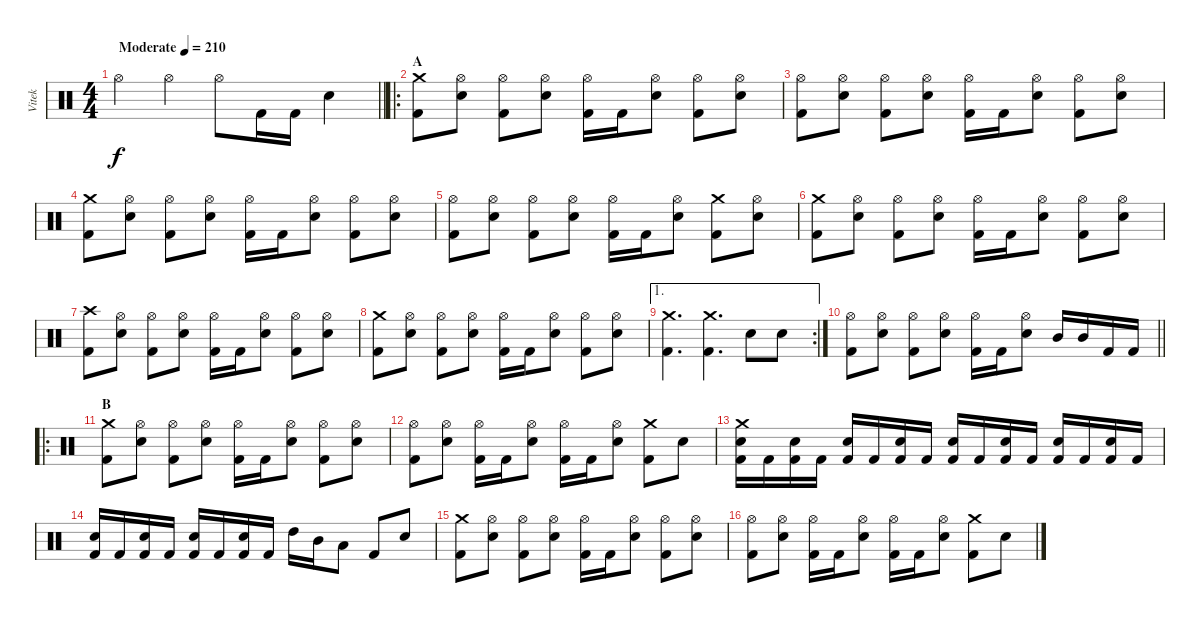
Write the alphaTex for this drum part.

\track ("Vitek" "Vitek") {instrument percussion}
\staff {score}
\articulation defaults
\ts (4 4)
\tempo (210 "Moderate")
\clef neutral
\barLineRight lightlight
\ks c "Hi-Hat (open)".4{dy f} "Hi-Hat (open)".4 "Hi-Hat (open)".8 "Kick (hit) 2".16 "Kick (hit) 2".16 "Electric Snare (hit)".4
|
\ro
\section ("" "A")
("Crash medium (hit)" "Kick (hit) 2").8 ("Hi-Hat (open)" "Electric Snare (hit)").8 ("Hi-Hat (open)" "Kick (hit) 2").8 ("Hi-Hat (open)" "Electric Snare (hit)").8 ("Hi-Hat (open)" "Kick (hit) 2").16 "Kick (hit) 2".16 ("Hi-Hat (open)" "Electric Snare (hit)").8 ("Hi-Hat (open)" "Kick (hit) 2").8 ("Hi-Hat (open)" "Electric Snare (hit)").8 |
("Hi-Hat (open)" "Kick (hit) 2").8 ("Hi-Hat (open)" "Electric Snare (hit)").8 ("Hi-Hat (open)" "Kick (hit) 2").8 ("Hi-Hat (open)" "Electric Snare (hit)").8 ("Hi-Hat (open)" "Kick (hit) 2").16 "Kick (hit) 2".16 ("Hi-Hat (open)" "Electric Snare (hit)").8 ("Hi-Hat (open)" "Kick (hit) 2").8 ("Hi-Hat (open)" "Electric Snare (hit)").8 |
("Crash medium (hit)" "Kick (hit) 2").8 ("Hi-Hat (open)" "Electric Snare (hit)").8 ("Hi-Hat (open)" "Kick (hit) 2").8 ("Hi-Hat (open)" "Electric Snare (hit)").8 ("Hi-Hat (open)" "Kick (hit) 2").16 "Kick (hit) 2".16 ("Hi-Hat (open)" "Electric Snare (hit)").8 ("Hi-Hat (open)" "Kick (hit) 2").8 ("Hi-Hat (open)" "Electric Snare (hit)").8 |
("Hi-Hat (open)" "Kick (hit) 2").8 ("Hi-Hat (open)" "Electric Snare (hit)").8 ("Hi-Hat (open)" "Kick (hit) 2").8 ("Hi-Hat (open)" "Electric Snare (hit)").8 ("Hi-Hat (open)" "Kick (hit) 2").16 "Kick (hit) 2".16 ("Hi-Hat (open)" "Electric Snare (hit)").8 ("Crash medium (hit)" "Kick (hit) 2").8 ("Hi-Hat (open)" "Electric Snare (hit)").8 |
("Crash medium (hit)" "Kick (hit) 2").8 ("Hi-Hat (open)" "Electric Snare (hit)").8 ("Hi-Hat (open)" "Kick (hit) 2").8 ("Hi-Hat (open)" "Electric Snare (hit)").8 ("Hi-Hat (open)" "Kick (hit) 2").16 "Kick (hit) 2".16 ("Hi-Hat (open)" "Electric Snare (hit)").8 ("Hi-Hat (open)" "Kick (hit) 2").8 ("Hi-Hat (open)" "Electric Snare (hit)").8 |
("Crash high (hit)" "Kick (hit) 2").8 ("Hi-Hat (open)" "Electric Snare (hit)").8 ("Hi-Hat (open)" "Kick (hit) 2").8 ("Hi-Hat (open)" "Electric Snare (hit)").8 ("Hi-Hat (open)" "Kick (hit) 2").16 "Kick (hit) 2".16 ("Hi-Hat (open)" "Electric Snare (hit)").8 ("Hi-Hat (open)" "Kick (hit) 2").8 ("Hi-Hat (open)" "Electric Snare (hit)").8 |
("Crash medium (hit)" "Kick (hit) 2").8 ("Hi-Hat (open)" "Electric Snare (hit)").8 ("Hi-Hat (open)" "Kick (hit) 2").8 ("Hi-Hat (open)" "Electric Snare (hit)").8 ("Hi-Hat (open)" "Kick (hit) 2").16 "Kick (hit) 2".16 ("Hi-Hat (open)" "Electric Snare (hit)").8 ("Hi-Hat (open)" "Kick (hit) 2").8 ("Hi-Hat (open)" "Electric Snare (hit)").8 |
\ae 1
\rc 2
("Crash medium (hit)" "Kick (hit) 2").4{d} ("Crash medium (hit)" "Kick (hit) 2").4{d} "Electric Snare (hit)".8 "Electric Snare (hit)".8 |
\barLineRight lightlight
("Hi-Hat (open)" "Kick (hit) 2").8 ("Hi-Hat (open)" "Electric Snare (hit)").8 ("Hi-Hat (open)" "Kick (hit) 2").8 ("Hi-Hat (open)" "Electric Snare (hit)").8 ("Hi-Hat (open)" "Kick (hit) 2").16 "Kick (hit) 2".16 ("Hi-Hat (open)" "Electric Snare (hit)").8 "Mid Tom (hit)".16 "Mid Tom (hit)".16 "Kick (hit) 2".16 "Kick (hit) 2".16 |
\ro
\section ("" "B")
("Crash medium (hit)" "Kick (hit) 2").8 ("Hi-Hat (open)" "Electric Snare (hit)").8 ("Hi-Hat (open)" "Kick (hit) 2").8 ("Hi-Hat (open)" "Electric Snare (hit)").8 ("Hi-Hat (open)" "Kick (hit) 2").16 "Kick (hit) 2".16 ("Hi-Hat (open)" "Electric Snare (hit)").8 ("Hi-Hat (open)" "Kick (hit) 2").8 ("Hi-Hat (open)" "Electric Snare (hit)").8 |
("Hi-Hat (open)" "Kick (hit) 2").8 ("Hi-Hat (open)" "Electric Snare (hit)").8 ("Hi-Hat (open)" "Kick (hit) 2").16 "Kick (hit) 2".16 ("Hi-Hat (open)" "Electric Snare (hit)").8 ("Hi-Hat (open)" "Kick (hit) 2").16 "Kick (hit) 2".16 ("Hi-Hat (open)" "Electric Snare (hit)").8 ("Crash medium (hit)" "Kick (hit) 2").8 "Electric Snare (hit)".8 |
("Crash medium (hit)" "Electric Snare (hit)" "Kick (hit) 2").16 "Kick (hit) 2".16 ("Electric Snare (hit)" "Kick (hit) 2").16 "Kick (hit) 2".16 ("Electric Snare (hit)" "Kick (hit) 2").16 "Kick (hit) 2".16 ("Electric Snare (hit)" "Kick (hit) 2").16 "Kick (hit) 2".16 ("Electric Snare (hit)" "Kick (hit) 2").16 "Kick (hit) 2".16 ("Electric Snare (hit)" "Kick (hit) 2").16 "Kick (hit) 2".16 ("Electric Snare (hit)" "Kick (hit) 2").16 "Kick (hit) 2".16 ("Electric Snare (hit)" "Kick (hit) 2").16 "Kick (hit) 2".16 |
("Electric Snare (hit)" "Kick (hit) 2").16 "Kick (hit) 2".16 ("Electric Snare (hit)" "Kick (hit) 2").16 "Kick (hit) 2".16 ("Electric Snare (hit)" "Kick (hit) 2").16 "Kick (hit) 2".16 ("Electric Snare (hit)" "Kick (hit) 2").16 "Kick (hit) 2".16 "High Tom (hit)".16 "Mid Tom (hit)".16 "Low Tom (hit)".8 "Kick (hit) 2".8 "Electric Snare (hit)".8 |
("Crash medium (hit)" "Kick (hit) 2").8 ("Hi-Hat (open)" "Electric Snare (hit)").8 ("Hi-Hat (open)" "Kick (hit) 2").8 ("Hi-Hat (open)" "Electric Snare (hit)").8 ("Hi-Hat (open)" "Kick (hit) 2").16 "Kick (hit) 2".16 ("Hi-Hat (open)" "Electric Snare (hit)").8 ("Hi-Hat (open)" "Kick (hit) 2").8 ("Hi-Hat (open)" "Electric Snare (hit)").8 |
("Hi-Hat (open)" "Kick (hit) 2").8 ("Hi-Hat (open)" "Electric Snare (hit)").8 ("Hi-Hat (open)" "Kick (hit) 2").16 "Kick (hit) 2".16 ("Hi-Hat (open)" "Electric Snare (hit)").8 ("Hi-Hat (open)" "Kick (hit) 2").16 "Kick (hit) 2".16 ("Hi-Hat (open)" "Electric Snare (hit)").8 ("Crash medium (hit)" "Kick (hit) 2").8 "Electric Snare (hit)".8
